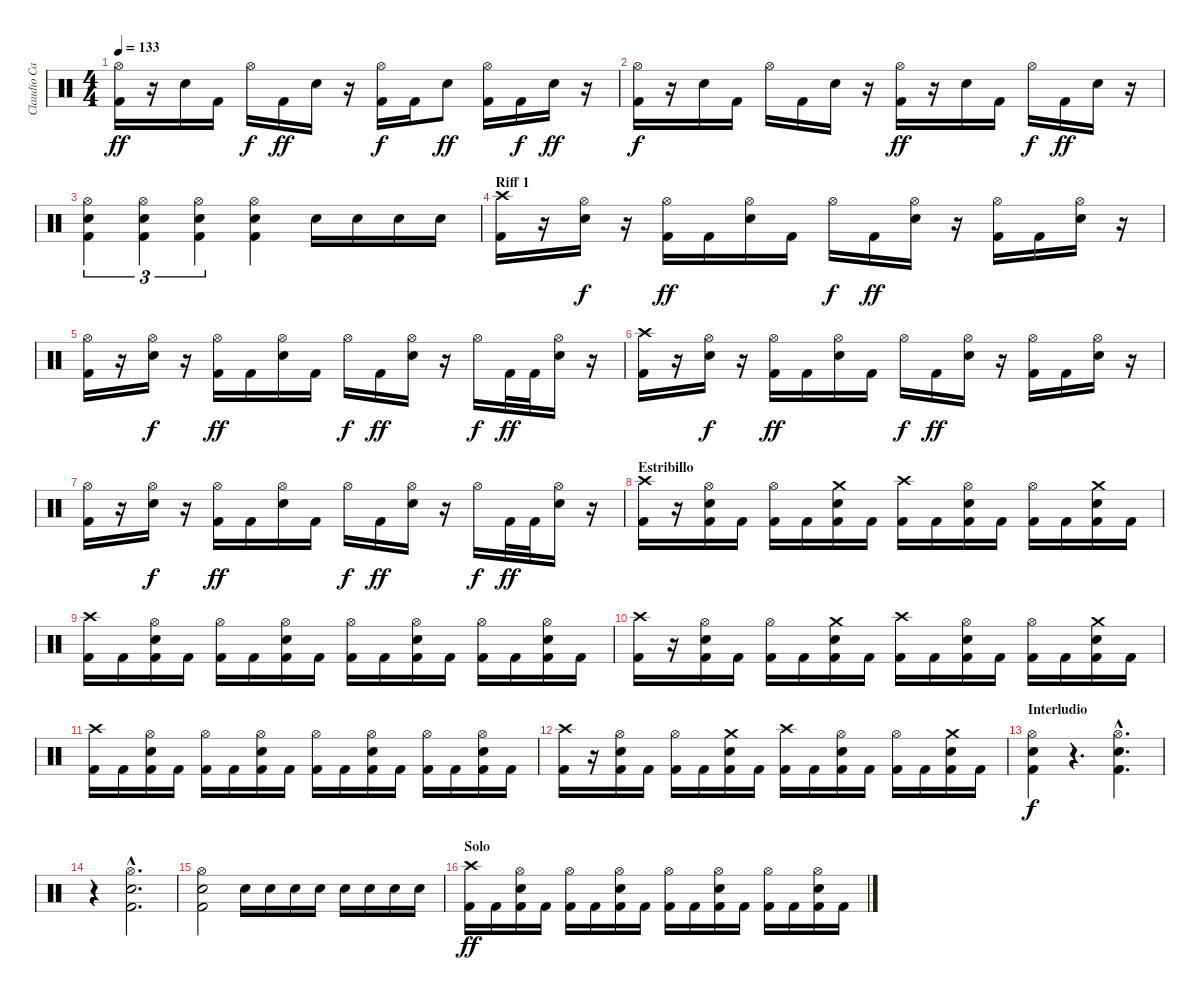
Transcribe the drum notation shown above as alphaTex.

\track ("Claudio Cardaci (bateria)" "Claudio Ca") {instrument percussion}
\staff {score}
\articulation defaults
\ts (4 4)
\tempo 133
\clef neutral
\ks c
("Hi-Hat (open)" "Kick (hit) 2").16{dy ff} r.16 "Snare (hit) 2".16 "Kick (hit) 2".16 "Hi-Hat (open)".16{dy f} "Kick (hit) 2".16{dy ff} "Snare (hit) 2".16 r.16 ("Hi-Hat (open)" "Kick (hit) 2").16{dy f} "Kick (hit) 2".16 "Snare (hit) 2".8{dy ff} ("Hi-Hat (open)" "Kick (hit) 2").16 "Kick (hit) 2".16{dy f} "Snare (hit) 2".16{dy ff} r.16 |
("Hi-Hat (open)" "Kick (hit) 2").16{dy f} r.16 "Snare (hit) 2".16 "Kick (hit) 2".16 "Hi-Hat (open)".16 "Kick (hit) 2".16 "Snare (hit) 2".16 r.16 ("Hi-Hat (open)" "Kick (hit) 2").16{dy ff} r.16 "Snare (hit) 2".16 "Kick (hit) 2".16 "Hi-Hat (open)".16{dy f} "Kick (hit) 2".16{dy ff} "Snare (hit) 2".16 r.16 |
("Hi-Hat (open)" "Kick (hit) 2" "Snare (hit) 2").4{tu (3 2)} ("Hi-Hat (open)" "Kick (hit) 2" "Snare (hit) 2").4{tu (3 2)} ("Hi-Hat (open)" "Kick (hit) 2" "Snare (hit) 2").4{tu (3 2)} ("Hi-Hat (open)" "Kick (hit) 2" "Snare (hit) 2").4 "Electric Snare (hit)".16 "Electric Snare (hit)".16 "Electric Snare (hit)".16 "Electric Snare (hit)".16 |
\section ("" "Riff 1")
("Crash high (hit)" "Kick (hit) 2").16 r.16 ("Hi-Hat (open)" "Snare (hit) 2").16{dy f} r.16 ("Hi-Hat (open)" "Kick (hit) 2").16{dy ff} "Kick (hit) 2".16 ("Hi-Hat (open)" "Snare (hit) 2").16 "Kick (hit) 2".16 "Hi-Hat (open)".16{dy f} "Kick (hit) 2".16{dy ff} ("Hi-Hat (open)" "Snare (hit) 2").16 r.16 ("Hi-Hat (open)" "Kick (hit) 2").16 "Kick (hit) 2".16 ("Hi-Hat (open)" "Snare (hit) 2").16 r.16 |
("Hi-Hat (open)" "Kick (hit) 2").16 r.16 ("Hi-Hat (open)" "Snare (hit) 2").16{dy f} r.16 ("Hi-Hat (open)" "Kick (hit) 2").16{dy ff} "Kick (hit) 2".16 ("Hi-Hat (open)" "Snare (hit) 2").16 "Kick (hit) 2".16 "Hi-Hat (open)".16{dy f} "Kick (hit) 2".16{dy ff} ("Hi-Hat (open)" "Snare (hit) 2").16 r.16 "Hi-Hat (open)".16{dy f} "Kick (hit) 2".32{dy ff} "Kick (hit) 2".32 ("Hi-Hat (open)" "Snare (hit) 2").16 r.16 |
("Crash high (hit)" "Kick (hit) 2").16 r.16 ("Hi-Hat (open)" "Snare (hit) 2").16{dy f} r.16 ("Hi-Hat (open)" "Kick (hit) 2").16{dy ff} "Kick (hit) 2".16 ("Hi-Hat (open)" "Snare (hit) 2").16 "Kick (hit) 2".16 "Hi-Hat (open)".16{dy f} "Kick (hit) 2".16{dy ff} ("Hi-Hat (open)" "Snare (hit) 2").16 r.16 ("Hi-Hat (open)" "Kick (hit) 2").16 "Kick (hit) 2".16 ("Hi-Hat (open)" "Snare (hit) 2").16 r.16 |
("Hi-Hat (open)" "Kick (hit) 2").16 r.16 ("Hi-Hat (open)" "Snare (hit) 2").16{dy f} r.16 ("Hi-Hat (open)" "Kick (hit) 2").16{dy ff} "Kick (hit) 2".16 ("Hi-Hat (open)" "Snare (hit) 2").16 "Kick (hit) 2".16 "Hi-Hat (open)".16{dy f} "Kick (hit) 2".16{dy ff} ("Hi-Hat (open)" "Snare (hit) 2").16 r.16 "Hi-Hat (open)".16{dy f} "Kick (hit) 2".32{dy ff} "Kick (hit) 2".32 ("Hi-Hat (open)" "Snare (hit) 2").16 r.16 |
\section ("" "Estribillo")
("Crash high (hit)" "Kick (hit) 2").16 r.16 ("Hi-Hat (open)" "Snare (hit) 2" "Kick (hit) 2").16 "Kick (hit) 2".16 ("Hi-Hat (open)" "Kick (hit) 2").16 "Kick (hit) 2".16 ("Crash medium (hit)" "Snare (hit) 2" "Kick (hit) 2").16 "Kick (hit) 2".16 ("Crash high (hit)" "Kick (hit) 2").16 "Kick (hit) 2".16 ("Hi-Hat (open)" "Snare (hit) 2" "Kick (hit) 2").16 "Kick (hit) 2".16 ("Hi-Hat (open)" "Kick (hit) 2").16 "Kick (hit) 2".16 ("Crash medium (hit)" "Snare (hit) 2" "Kick (hit) 2").16 "Kick (hit) 2".16 |
("Crash high (hit)" "Kick (hit) 2").16 "Kick (hit) 2".16 ("Hi-Hat (open)" "Snare (hit) 2" "Kick (hit) 2").16 "Kick (hit) 2".16 ("Hi-Hat (open)" "Kick (hit) 2").16 "Kick (hit) 2".16 ("Hi-Hat (open)" "Snare (hit) 2" "Kick (hit) 2").16 "Kick (hit) 2".16 ("Hi-Hat (open)" "Kick (hit) 2").16 "Kick (hit) 2".16 ("Hi-Hat (open)" "Snare (hit) 2" "Kick (hit) 2").16 "Kick (hit) 2".16 ("Hi-Hat (open)" "Kick (hit) 2").16 "Kick (hit) 2".16 ("Hi-Hat (open)" "Snare (hit) 2" "Kick (hit) 2").16 "Kick (hit) 2".16 |
("Crash high (hit)" "Kick (hit) 2").16 r.16 ("Hi-Hat (open)" "Snare (hit) 2" "Kick (hit) 2").16 "Kick (hit) 2".16 ("Hi-Hat (open)" "Kick (hit) 2").16 "Kick (hit) 2".16 ("Crash medium (hit)" "Snare (hit) 2" "Kick (hit) 2").16 "Kick (hit) 2".16 ("Crash high (hit)" "Kick (hit) 2").16 "Kick (hit) 2".16 ("Hi-Hat (open)" "Snare (hit) 2" "Kick (hit) 2").16 "Kick (hit) 2".16 ("Hi-Hat (open)" "Kick (hit) 2").16 "Kick (hit) 2".16 ("Crash medium (hit)" "Snare (hit) 2" "Kick (hit) 2").16 "Kick (hit) 2".16 |
("Crash high (hit)" "Kick (hit) 2").16 "Kick (hit) 2".16 ("Hi-Hat (open)" "Snare (hit) 2" "Kick (hit) 2").16 "Kick (hit) 2".16 ("Hi-Hat (open)" "Kick (hit) 2").16 "Kick (hit) 2".16 ("Hi-Hat (open)" "Snare (hit) 2" "Kick (hit) 2").16 "Kick (hit) 2".16 ("Hi-Hat (open)" "Kick (hit) 2").16 "Kick (hit) 2".16 ("Hi-Hat (open)" "Snare (hit) 2" "Kick (hit) 2").16 "Kick (hit) 2".16 ("Hi-Hat (open)" "Kick (hit) 2").16 "Kick (hit) 2".16 ("Hi-Hat (open)" "Snare (hit) 2" "Kick (hit) 2").16 "Kick (hit) 2".16 |
("Crash high (hit)" "Kick (hit) 2").16 r.16 ("Hi-Hat (open)" "Snare (hit) 2" "Kick (hit) 2").16 "Kick (hit) 2".16 ("Hi-Hat (open)" "Kick (hit) 2").16 "Kick (hit) 2".16 ("Crash medium (hit)" "Snare (hit) 2" "Kick (hit) 2").16 "Kick (hit) 2".16 ("Crash high (hit)" "Kick (hit) 2").16 "Kick (hit) 2".16 ("Hi-Hat (open)" "Snare (hit) 2" "Kick (hit) 2").16 "Kick (hit) 2".16 ("Hi-Hat (open)" "Kick (hit) 2").16 "Kick (hit) 2".16 ("Crash medium (hit)" "Snare (hit) 2" "Kick (hit) 2").16 "Kick (hit) 2".16 |
\section ("" "Interludio")
("Hi-Hat (open)" "Snare (hit) 2" "Kick (hit) 2").4{dy f} r.4{d} ("Hi-Hat (open)"{hac} "Snare (hit) 2"{hac} "Kick (hit) 2"{hac}).4{d} |
r.4 ("Hi-Hat (open)"{hac} "Snare (hit) 2"{hac} "Kick (hit) 2"{hac}).2{d} |
("Hi-Hat (open)" "Snare (hit) 2" "Kick (hit) 2").2 "Electric Snare (hit)".16 "Electric Snare (hit)".16 "Electric Snare (hit)".16 "Electric Snare (hit)".16 "Electric Snare (hit)".16 "Electric Snare (hit)".16 "Electric Snare (hit)".16 "Electric Snare (hit)".16 |
\section ("" "Solo")
("Crash high (hit)" "Kick (hit) 2").16{dy ff} "Kick (hit) 2".16 ("Hi-Hat (open)" "Snare (hit) 2" "Kick (hit) 2").16 "Kick (hit) 2".16 ("Hi-Hat (open)" "Kick (hit) 2").16 "Kick (hit) 2".16 ("Hi-Hat (open)" "Snare (hit) 2" "Kick (hit) 2").16 "Kick (hit) 2".16 ("Hi-Hat (open)" "Kick (hit) 2").16 "Kick (hit) 2".16 ("Hi-Hat (open)" "Snare (hit) 2" "Kick (hit) 2").16 "Kick (hit) 2".16 ("Hi-Hat (open)" "Kick (hit) 2").16 "Kick (hit) 2".16 ("Hi-Hat (open)" "Snare (hit) 2" "Kick (hit) 2").16 "Kick (hit) 2".16
